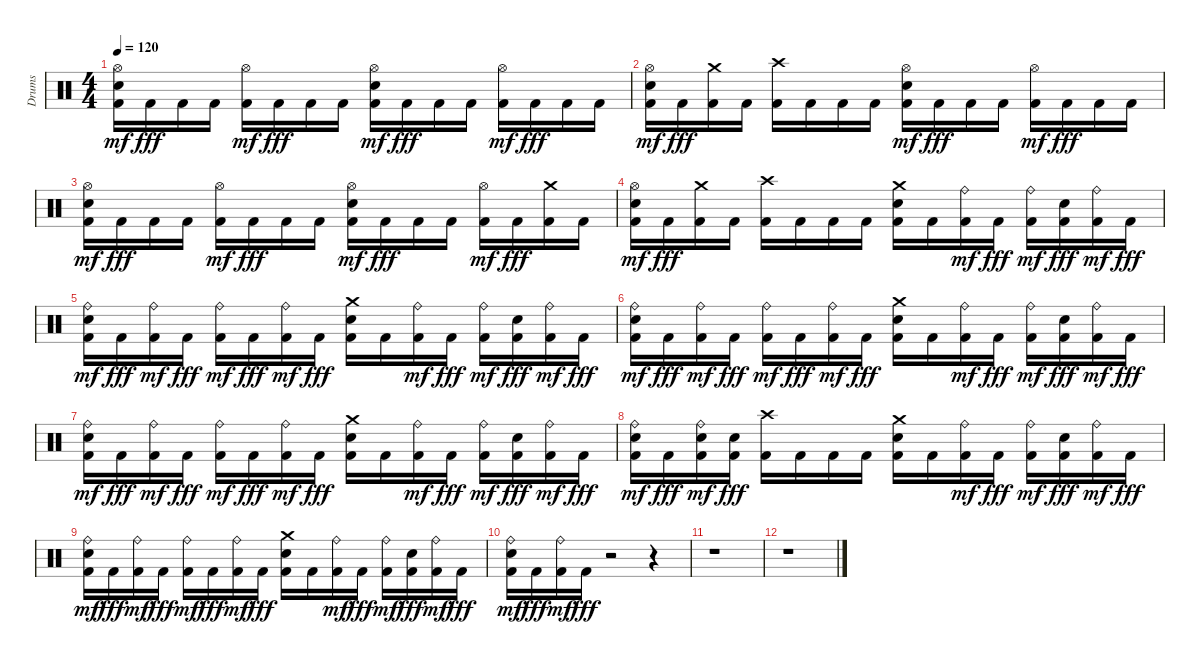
\track ("Drums" "Drums") {instrument percussion}
\staff {score}
\articulation defaults
\ts (4 4)
\tempo 120
\clef neutral
\ks c
("Electric Snare (hit)" "Kick (hit) 2" "Hi-Hat (open)").16{dy mf volume 12} "Kick (hit) 2".16{dy fff} "Kick (hit) 2".16{volume 11} "Kick (hit) 2".16{volume 11} ("Kick (hit) 2" "Hi-Hat (open)").16{dy mf} "Kick (hit) 2".16{dy fff volume 11} "Kick (hit) 2".16{volume 11} "Kick (hit) 2".16 ("Electric Snare (hit)" "Kick (hit) 2" "Hi-Hat (open)").16{dy mf volume 11} "Kick (hit) 2".16{dy fff} "Kick (hit) 2".16{volume 11} "Kick (hit) 2".16{volume 11} ("Kick (hit) 2" "Hi-Hat (open)").16{dy mf} "Kick (hit) 2".16{dy fff volume 10} "Kick (hit) 2".16{volume 10} "Kick (hit) 2".16 |
("Electric Snare (hit)" "Kick (hit) 2" "Hi-Hat (open)").16{dy mf volume 10} "Kick (hit) 2".16{dy fff} ("Kick (hit) 2" "Crash medium (hit)").16{volume 10} "Kick (hit) 2".16{volume 10} ("Kick (hit) 2" "Crash high (hit)").16 "Kick (hit) 2".16{volume 10} "Kick (hit) 2".16{volume 10} "Kick (hit) 2".16 ("Electric Snare (hit)" "Kick (hit) 2" "Hi-Hat (open)").16{dy mf volume 10} "Kick (hit) 2".16{dy fff} "Kick (hit) 2".16{volume 10} "Kick (hit) 2".16{volume 9} ("Kick (hit) 2" "Hi-Hat (open)").16{dy mf} "Kick (hit) 2".16{dy fff volume 9} "Kick (hit) 2".16{volume 9} "Kick (hit) 2".16 |
("Electric Snare (hit)" "Kick (hit) 2" "Hi-Hat (open)").16{dy mf volume 9} "Kick (hit) 2".16{dy fff} "Kick (hit) 2".16{volume 9} "Kick (hit) 2".16{volume 9} ("Kick (hit) 2" "Hi-Hat (open)").16{dy mf} "Kick (hit) 2".16{dy fff volume 9} "Kick (hit) 2".16{volume 8} "Kick (hit) 2".16 ("Electric Snare (hit)" "Kick (hit) 2" "Hi-Hat (open)").16{dy mf volume 8} "Kick (hit) 2".16{dy fff volume 8} "Kick (hit) 2".16 "Kick (hit) 2".16{volume 8} ("Kick (hit) 2" "Hi-Hat (open)").16{dy mf} "Kick (hit) 2".16{dy fff volume 8} ("Kick (hit) 2" "Crash medium (hit)").16{volume 8} "Kick (hit) 2".16 |
("Electric Snare (hit)" "Kick (hit) 2" "Hi-Hat (open)").16{dy mf volume 8} "Kick (hit) 2".16{dy fff volume 8} ("Kick (hit) 2" "Crash medium (hit)").16 "Kick (hit) 2".16{volume 8} ("Kick (hit) 2" "Crash high (hit)").16 "Kick (hit) 2".16{volume 7} "Kick (hit) 2".16{volume 7} "Kick (hit) 2".16 ("Electric Snare (hit)" "Kick (hit) 2" "Crash medium (hit)").16{volume 7} "Kick (hit) 2".16{volume 7} ("Kick (hit) 2" "Ride (bell)").16{dy mf} "Kick (hit) 2".16{dy fff volume 7} ("Kick (hit) 2" "Ride (bell)").16{dy mf} ("Kick (hit) 2" "Electric Snare (hit)").16{dy fff volume 7} ("Kick (hit) 2" "Ride (bell)").16{dy mf volume 7} "Kick (hit) 2".16{dy fff} |
("Electric Snare (hit)" "Kick (hit) 2" "Ride (bell)").16{dy mf volume 6} "Kick (hit) 2".16{dy fff volume 6} ("Kick (hit) 2" "Ride (bell)").16{dy mf} "Kick (hit) 2".16{dy fff volume 6} ("Kick (hit) 2" "Ride (bell)").16{dy mf} "Kick (hit) 2".16{dy fff volume 6} ("Kick (hit) 2" "Ride (bell)").16{dy mf volume 6} "Kick (hit) 2".16{dy fff} ("Electric Snare (hit)" "Kick (hit) 2" "Crash medium (hit)").16{volume 6} "Kick (hit) 2".16{volume 6} ("Kick (hit) 2" "Ride (bell)").16{dy mf} "Kick (hit) 2".16{dy fff volume 6} ("Kick (hit) 2" "Ride (bell)").16{dy mf} ("Kick (hit) 2" "Electric Snare (hit)").16{dy fff volume 6} ("Kick (hit) 2" "Ride (bell)").16{dy mf volume 5} "Kick (hit) 2".16{dy fff} |
("Electric Snare (hit)" "Kick (hit) 2" "Ride (bell)").16{dy mf volume 5} "Kick (hit) 2".16{dy fff volume 5} ("Kick (hit) 2" "Ride (bell)").16{dy mf} "Kick (hit) 2".16{dy fff volume 5} ("Kick (hit) 2" "Ride (bell)").16{dy mf} "Kick (hit) 2".16{dy fff volume 5} ("Kick (hit) 2" "Ride (bell)").16{dy mf volume 5} "Kick (hit) 2".16{dy fff} ("Electric Snare (hit)" "Kick (hit) 2" "Crash medium (hit)").16{volume 5} "Kick (hit) 2".16{volume 4} ("Kick (hit) 2" "Ride (bell)").16{dy mf} "Kick (hit) 2".16{dy fff volume 4} ("Kick (hit) 2" "Ride (bell)").16{dy mf} ("Kick (hit) 2" "Electric Snare (hit)").16{dy fff volume 4} ("Kick (hit) 2" "Ride (bell)").16{dy mf volume 4} "Kick (hit) 2".16{dy fff} |
("Electric Snare (hit)" "Kick (hit) 2" "Ride (bell)").16{dy mf volume 4} "Kick (hit) 2".16{dy fff volume 4} ("Kick (hit) 2" "Ride (bell)").16{dy mf} "Kick (hit) 2".16{dy fff volume 4} ("Kick (hit) 2" "Ride (bell)").16{dy mf} "Kick (hit) 2".16{dy fff volume 4} ("Kick (hit) 2" "Ride (bell)").16{dy mf volume 4} "Kick (hit) 2".16{dy fff} ("Electric Snare (hit)" "Kick (hit) 2" "Crash medium (hit)").16{volume 3} "Kick (hit) 2".16{volume 3} ("Kick (hit) 2" "Ride (bell)").16{dy mf} "Kick (hit) 2".16{dy fff volume 3} ("Kick (hit) 2" "Ride (bell)").16{dy mf} ("Kick (hit) 2" "Electric Snare (hit)").16{dy fff volume 3} ("Kick (hit) 2" "Ride (bell)").16{dy mf volume 3} "Kick (hit) 2".16{dy fff} |
("Electric Snare (hit)" "Kick (hit) 2" "Ride (bell)").16{dy mf volume 3} "Kick (hit) 2".16{dy fff volume 3} ("Kick (hit) 2" "Electric Snare (hit)" "Ride (bell)").16{dy mf} ("Kick (hit) 2" "Electric Snare (hit)").16{dy fff volume 2} ("Kick (hit) 2" "Crash high (hit)").16 "Kick (hit) 2".16{volume 2} "Kick (hit) 2".16{volume 2} "Kick (hit) 2".16 ("Electric Snare (hit)" "Kick (hit) 2" "Crash medium (hit)").16{volume 2} "Kick (hit) 2".16{volume 2} ("Kick (hit) 2" "Ride (bell)").16{dy mf} "Kick (hit) 2".16{dy fff volume 2} ("Kick (hit) 2" "Ride (bell)").16{dy mf} ("Kick (hit) 2" "Electric Snare (hit)").16{dy fff volume 2} ("Kick (hit) 2" "Ride (bell)").16{dy mf volume 2} "Kick (hit) 2".16{dy fff} |
("Electric Snare (hit)" "Kick (hit) 2" "Ride (bell)").16{dy mf volume 2} "Kick (hit) 2".16{dy fff volume 1} ("Kick (hit) 2" "Ride (bell)").16{dy mf} "Kick (hit) 2".16{dy fff volume 1} ("Kick (hit) 2" "Ride (bell)").16{dy mf} "Kick (hit) 2".16{dy fff volume 1} ("Kick (hit) 2" "Ride (bell)").16{dy mf volume 1} "Kick (hit) 2".16{dy fff} ("Electric Snare (hit)" "Kick (hit) 2" "Crash medium (hit)").16{volume 1} "Kick (hit) 2".16{volume 1} ("Kick (hit) 2" "Ride (bell)").16{dy mf} "Kick (hit) 2".16{dy fff volume 1} ("Kick (hit) 2" "Ride (bell)").16{dy mf} ("Kick (hit) 2" "Electric Snare (hit)").16{dy fff volume 0} ("Kick (hit) 2" "Ride (bell)").16{dy mf volume 0} "Kick (hit) 2".16{dy fff} |
("Electric Snare (hit)" "Kick (hit) 2" "Ride (bell)").16{dy mf volume 0} "Kick (hit) 2".16{dy fff volume 0} ("Kick (hit) 2" "Ride (bell)").16{dy mf} "Kick (hit) 2".16{dy fff volume 0} r.2 r.4 |
r.1 |
r.1
